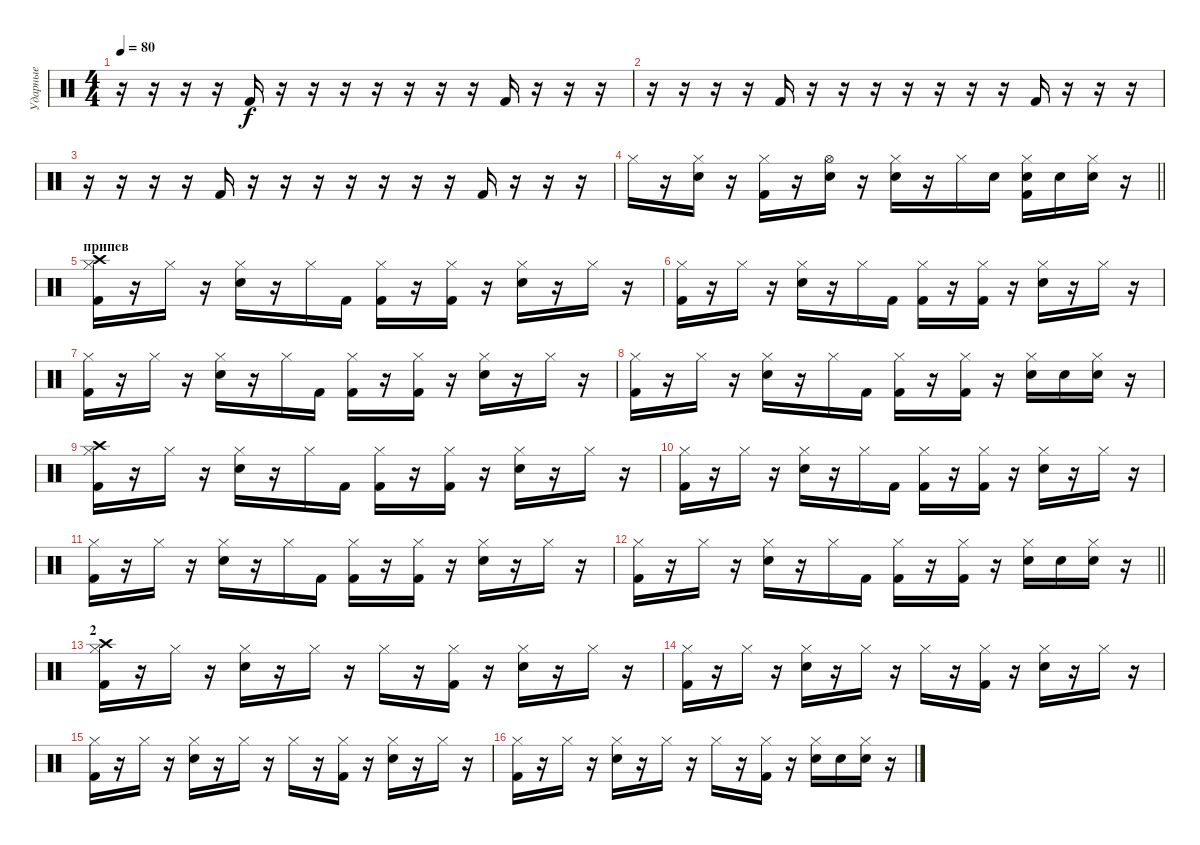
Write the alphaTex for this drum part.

\track ("Ударные" "Ударные") {instrument percussion}
\staff {score}
\articulation defaults
\ts (4 4)
\tempo 80
\clef neutral
\ks c
r.16{dy f} r.16 r.16 r.16 "Kick (hit) 2".16 r.16 r.16 r.16 r.16 r.16 r.16 r.16 "Kick (hit) 2".16 r.16 r.16 r.16 |
r.16 r.16 r.16 r.16 "Kick (hit) 2".16 r.16 r.16 r.16 r.16 r.16 r.16 r.16 "Kick (hit) 2".16 r.16 r.16 r.16 |
r.16 r.16 r.16 r.16 "Kick (hit) 2".16 r.16 r.16 r.16 r.16 r.16 r.16 r.16 "Kick (hit) 2".16 r.16 r.16 r.16 |
\barLineRight lightlight "Hi-Hat (closed)".16
r.16 ("Hi-Hat (closed)" "Snare (hit) 2").16 r.16 ("Hi-Hat (closed)" "Kick (hit) 2").16 r.16 ("Hi-Hat (open)" "Snare (hit) 2").16 r.16 ("Hi-Hat (closed)" "Snare (hit) 2").16 r.16 "Hi-Hat (closed)".16 "Snare (hit) 2".16 ("Hi-Hat (closed)" "Kick (hit) 2" "Snare (hit) 2").16 "Snare (hit) 2".16 ("Hi-Hat (closed)" "Snare (hit) 2").16 r.16 |
\section ("" "припев")
("Hi-Hat (closed)" "Kick (hit) 2" "Crash high (hit)").16 r.16 "Hi-Hat (closed)".16 r.16 ("Hi-Hat (closed)" "Snare (hit) 2").16 r.16 "Hi-Hat (closed)".16 "Kick (hit) 2".16 ("Hi-Hat (closed)" "Kick (hit) 2").16 r.16 ("Hi-Hat (closed)" "Kick (hit) 2").16 r.16 ("Hi-Hat (closed)" "Snare (hit) 2").16 r.16 "Hi-Hat (closed)".16 r.16 |
("Hi-Hat (closed)" "Kick (hit) 2").16 r.16 "Hi-Hat (closed)".16 r.16 ("Hi-Hat (closed)" "Snare (hit) 2").16 r.16 "Hi-Hat (closed)".16 "Kick (hit) 2".16 ("Hi-Hat (closed)" "Kick (hit) 2").16 r.16 ("Hi-Hat (closed)" "Kick (hit) 2").16 r.16 ("Hi-Hat (closed)" "Snare (hit) 2").16 r.16 "Hi-Hat (closed)".16 r.16 |
("Hi-Hat (closed)" "Kick (hit) 2").16 r.16 "Hi-Hat (closed)".16 r.16 ("Hi-Hat (closed)" "Snare (hit) 2").16 r.16 "Hi-Hat (closed)".16 "Kick (hit) 2".16 ("Hi-Hat (closed)" "Kick (hit) 2").16 r.16 ("Hi-Hat (closed)" "Kick (hit) 2").16 r.16 ("Hi-Hat (closed)" "Snare (hit) 2").16 r.16 "Hi-Hat (closed)".16 r.16 |
("Hi-Hat (closed)" "Kick (hit) 2").16 r.16 "Hi-Hat (closed)".16 r.16 ("Hi-Hat (closed)" "Snare (hit) 2").16 r.16 "Hi-Hat (closed)".16 "Kick (hit) 2".16 ("Hi-Hat (closed)" "Kick (hit) 2").16 r.16 ("Hi-Hat (closed)" "Kick (hit) 2").16 r.16 ("Hi-Hat (closed)" "Snare (hit) 2").16 "Snare (hit) 2".16 ("Hi-Hat (closed)" "Snare (hit) 2").16 r.16 |
("Hi-Hat (closed)" "Kick (hit) 2" "Crash high (hit)").16 r.16 "Hi-Hat (closed)".16 r.16 ("Hi-Hat (closed)" "Snare (hit) 2").16 r.16 "Hi-Hat (closed)".16 "Kick (hit) 2".16 ("Hi-Hat (closed)" "Kick (hit) 2").16 r.16 ("Hi-Hat (closed)" "Kick (hit) 2").16 r.16 ("Hi-Hat (closed)" "Snare (hit) 2").16 r.16 "Hi-Hat (closed)".16 r.16 |
("Hi-Hat (closed)" "Kick (hit) 2").16 r.16 "Hi-Hat (closed)".16 r.16 ("Hi-Hat (closed)" "Snare (hit) 2").16 r.16 "Hi-Hat (closed)".16 "Kick (hit) 2".16 ("Hi-Hat (closed)" "Kick (hit) 2").16 r.16 ("Hi-Hat (closed)" "Kick (hit) 2").16 r.16 ("Hi-Hat (closed)" "Snare (hit) 2").16 r.16 "Hi-Hat (closed)".16 r.16 |
("Hi-Hat (closed)" "Kick (hit) 2").16 r.16 "Hi-Hat (closed)".16 r.16 ("Hi-Hat (closed)" "Snare (hit) 2").16 r.16 "Hi-Hat (closed)".16 "Kick (hit) 2".16 ("Hi-Hat (closed)" "Kick (hit) 2").16 r.16 ("Hi-Hat (closed)" "Kick (hit) 2").16 r.16 ("Hi-Hat (closed)" "Snare (hit) 2").16 r.16 "Hi-Hat (closed)".16 r.16 |
\barLineRight lightlight
("Hi-Hat (closed)" "Kick (hit) 2").16 r.16 "Hi-Hat (closed)".16 r.16 ("Hi-Hat (closed)" "Snare (hit) 2").16 r.16 "Hi-Hat (closed)".16 "Kick (hit) 2".16 ("Hi-Hat (closed)" "Kick (hit) 2").16 r.16 ("Hi-Hat (closed)" "Kick (hit) 2").16 r.16 ("Hi-Hat (closed)" "Snare (hit) 2").16 "Snare (hit) 2".16 ("Hi-Hat (closed)" "Snare (hit) 2").16 r.16 |
\section ("" "2")
("Hi-Hat (closed)" "Kick (hit) 2" "Crash high (hit)").16 r.16 "Hi-Hat (closed)".16 r.16 ("Hi-Hat (closed)" "Snare (hit) 2").16 r.16 "Hi-Hat (closed)".16 r.16 "Hi-Hat (closed)".16 r.16 ("Hi-Hat (closed)" "Kick (hit) 2").16 r.16 ("Hi-Hat (closed)" "Snare (hit) 2").16 r.16 "Hi-Hat (closed)".16 r.16 |
("Hi-Hat (closed)" "Kick (hit) 2").16 r.16 "Hi-Hat (closed)".16 r.16 ("Hi-Hat (closed)" "Snare (hit) 2").16 r.16 "Hi-Hat (closed)".16 r.16 "Hi-Hat (closed)".16 r.16 ("Hi-Hat (closed)" "Kick (hit) 2").16 r.16 ("Hi-Hat (closed)" "Snare (hit) 2").16 r.16 "Hi-Hat (closed)".16 r.16 |
("Hi-Hat (closed)" "Kick (hit) 2").16 r.16 "Hi-Hat (closed)".16 r.16 ("Hi-Hat (closed)" "Snare (hit) 2").16 r.16 "Hi-Hat (closed)".16 r.16 "Hi-Hat (closed)".16 r.16 ("Hi-Hat (closed)" "Kick (hit) 2").16 r.16 ("Hi-Hat (closed)" "Snare (hit) 2").16 r.16 "Hi-Hat (closed)".16 r.16 |
("Hi-Hat (closed)" "Kick (hit) 2").16 r.16 "Hi-Hat (closed)".16 r.16 ("Hi-Hat (closed)" "Snare (hit) 2").16 r.16 "Hi-Hat (closed)".16 r.16 "Hi-Hat (closed)".16 r.16 ("Hi-Hat (closed)" "Kick (hit) 2").16 r.16 ("Hi-Hat (closed)" "Snare (hit) 2").16 "Snare (hit) 2".16 ("Hi-Hat (closed)" "Snare (hit) 2").16 r.16
